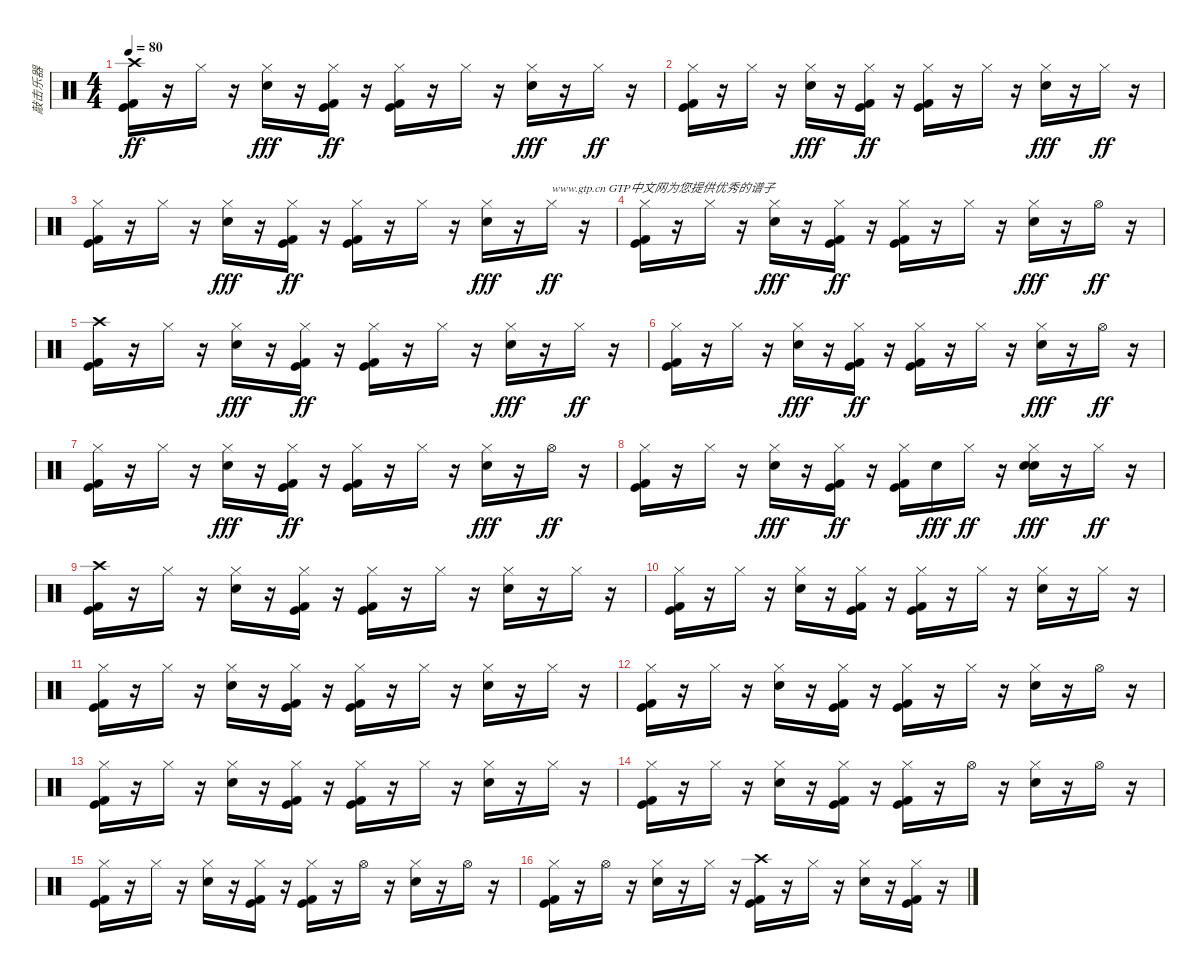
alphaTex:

\track ("敲击乐器" "敲击乐器") {instrument percussion}
\staff {score}
\articulation defaults
\ts (4 4)
\tempo 80
\clef neutral
\ks c
("Crash high (hit)" "Kick (hit)" "Kick (hit) 2").16{dy ff} r.16 "Hi-Hat (closed)".16 r.16 ("Hi-Hat (closed)" "Electric Snare (hit)").16{dy fff} r.16 ("Kick (hit)" "Kick (hit) 2" "Hi-Hat (closed)").16{dy ff} r.16 ("Kick (hit)" "Kick (hit) 2" "Hi-Hat (closed)").16 r.16 "Hi-Hat (closed)".16 r.16 ("Hi-Hat (closed)" "Electric Snare (hit)").16{dy fff} r.16 "Hi-Hat (closed)".16{dy ff} r.16 |
("Kick (hit)" "Kick (hit) 2" "Hi-Hat (closed)").16 r.16 "Hi-Hat (closed)".16 r.16 ("Hi-Hat (closed)" "Electric Snare (hit)").16{dy fff} r.16 ("Kick (hit)" "Kick (hit) 2" "Hi-Hat (closed)").16{dy ff} r.16 ("Kick (hit)" "Kick (hit) 2" "Hi-Hat (closed)").16 r.16 "Hi-Hat (closed)".16 r.16 ("Hi-Hat (closed)" "Electric Snare (hit)").16{dy fff} r.16 "Hi-Hat (closed)".16{dy ff} r.16 |
("Kick (hit)" "Kick (hit) 2" "Hi-Hat (closed)").16 r.16 "Hi-Hat (closed)".16 r.16 ("Hi-Hat (closed)" "Electric Snare (hit)").16{dy fff} r.16 ("Kick (hit)" "Kick (hit) 2" "Hi-Hat (closed)").16{dy ff} r.16 ("Kick (hit)" "Kick (hit) 2" "Hi-Hat (closed)").16 r.16 "Hi-Hat (closed)".16 r.16 ("Hi-Hat (closed)" "Electric Snare (hit)").16{dy fff} r.16 "Hi-Hat (closed)".16{txt "www.gtp.cn GTP中文网为您提供优秀的谱子" dy ff} r.16 |
("Kick (hit)" "Kick (hit) 2" "Hi-Hat (closed)").16 r.16 "Hi-Hat (closed)".16 r.16 ("Hi-Hat (closed)" "Electric Snare (hit)").16{dy fff} r.16 ("Kick (hit)" "Kick (hit) 2" "Hi-Hat (closed)").16{dy ff} r.16 ("Kick (hit)" "Kick (hit) 2" "Hi-Hat (closed)").16 r.16 "Hi-Hat (closed)".16 r.16 ("Hi-Hat (closed)" "Electric Snare (hit)").16{dy fff} r.16 "Hi-Hat (open)".16{dy ff} r.16 |
("Crash high (hit)" "Kick (hit)" "Kick (hit) 2").16 r.16 "Hi-Hat (closed)".16 r.16 ("Hi-Hat (closed)" "Electric Snare (hit)").16{dy fff} r.16 ("Kick (hit)" "Kick (hit) 2" "Hi-Hat (closed)").16{dy ff} r.16 ("Kick (hit)" "Kick (hit) 2" "Hi-Hat (closed)").16 r.16 "Hi-Hat (closed)".16 r.16 ("Hi-Hat (closed)" "Electric Snare (hit)").16{dy fff} r.16 "Hi-Hat (closed)".16{dy ff} r.16 |
("Kick (hit)" "Kick (hit) 2" "Hi-Hat (closed)").16 r.16 "Hi-Hat (closed)".16 r.16 ("Hi-Hat (closed)" "Electric Snare (hit)").16{dy fff} r.16 ("Kick (hit)" "Kick (hit) 2" "Hi-Hat (closed)").16{dy ff} r.16 ("Kick (hit)" "Kick (hit) 2" "Hi-Hat (closed)").16 r.16 "Hi-Hat (closed)".16 r.16 ("Hi-Hat (closed)" "Electric Snare (hit)").16{dy fff} r.16 "Hi-Hat (open)".16{dy ff} r.16 |
("Kick (hit)" "Kick (hit) 2" "Hi-Hat (closed)").16 r.16 "Hi-Hat (closed)".16 r.16 ("Hi-Hat (closed)" "Electric Snare (hit)").16{dy fff} r.16 ("Kick (hit)" "Kick (hit) 2" "Hi-Hat (closed)").16{dy ff} r.16 ("Kick (hit)" "Kick (hit) 2" "Hi-Hat (closed)").16 r.16 "Hi-Hat (closed)".16 r.16 ("Hi-Hat (closed)" "Electric Snare (hit)").16{dy fff} r.16 "Hi-Hat (open)".16{dy ff} r.16 |
("Kick (hit)" "Kick (hit) 2" "Hi-Hat (closed)").16 r.16 "Hi-Hat (closed)".16 r.16 ("Hi-Hat (closed)" "Electric Snare (hit)").16{dy fff} r.16 ("Kick (hit)" "Kick (hit) 2" "Hi-Hat (closed)").16{dy ff} r.16 ("Kick (hit)" "Kick (hit) 2" "Hi-Hat (closed)").16 "Electric Snare (hit)".16{dy fff} "Hi-Hat (closed)".16{dy ff} r.16 ("Electric Snare (hit)" "Hi-Hat (closed)" "Electric Snare (hit)").16{dy fff} r.16 "Hi-Hat (closed)".16{dy ff} r.16 |
("Crash high (hit)" "Kick (hit)" "Kick (hit) 2").16 r.16 "Hi-Hat (closed)".16 r.16 ("Electric Snare (hit)" "Hi-Hat (closed)").16 r.16 ("Kick (hit)" "Kick (hit) 2" "Hi-Hat (closed)").16 r.16 ("Kick (hit)" "Kick (hit) 2" "Hi-Hat (closed)").16 r.16 "Hi-Hat (closed)".16 r.16 ("Electric Snare (hit)" "Hi-Hat (closed)").16 r.16 "Hi-Hat (closed)".16 r.16 |
("Kick (hit) 2" "Kick (hit)" "Hi-Hat (closed)").16 r.16 "Hi-Hat (closed)".16 r.16 ("Electric Snare (hit)" "Hi-Hat (closed)").16 r.16 ("Kick (hit) 2" "Kick (hit)" "Hi-Hat (closed)").16 r.16 ("Kick (hit) 2" "Kick (hit)" "Hi-Hat (closed)").16 r.16 "Hi-Hat (closed)".16 r.16 ("Electric Snare (hit)" "Hi-Hat (closed)").16 r.16 "Hi-Hat (closed)".16 r.16 |
("Kick (hit)" "Kick (hit) 2" "Hi-Hat (closed)").16 r.16 "Hi-Hat (closed)".16 r.16 ("Electric Snare (hit)" "Hi-Hat (closed)").16 r.16 ("Kick (hit)" "Kick (hit) 2" "Hi-Hat (closed)").16 r.16 ("Kick (hit)" "Kick (hit) 2" "Hi-Hat (closed)").16 r.16 "Hi-Hat (closed)".16 r.16 ("Electric Snare (hit)" "Hi-Hat (closed)").16 r.16 "Hi-Hat (closed)".16 r.16 |
("Kick (hit) 2" "Kick (hit)" "Hi-Hat (closed)").16 r.16 "Hi-Hat (closed)".16 r.16 ("Electric Snare (hit)" "Hi-Hat (closed)").16 r.16 ("Kick (hit) 2" "Kick (hit)" "Hi-Hat (closed)").16 r.16 ("Kick (hit) 2" "Kick (hit)" "Hi-Hat (closed)").16 r.16 "Hi-Hat (closed)".16 r.16 ("Electric Snare (hit)" "Hi-Hat (closed)").16 r.16 "Hi-Hat (open)".16 r.16 |
("Kick (hit)" "Kick (hit) 2" "Hi-Hat (closed)").16 r.16 "Hi-Hat (closed)".16 r.16 ("Electric Snare (hit)" "Hi-Hat (closed)").16 r.16 ("Kick (hit)" "Kick (hit) 2" "Hi-Hat (closed)").16 r.16 ("Kick (hit)" "Kick (hit) 2" "Hi-Hat (closed)").16 r.16 "Hi-Hat (closed)".16 r.16 ("Electric Snare (hit)" "Hi-Hat (closed)").16 r.16 "Hi-Hat (closed)".16 r.16 |
("Kick (hit) 2" "Kick (hit)" "Hi-Hat (closed)").16 r.16 "Hi-Hat (closed)".16 r.16 ("Electric Snare (hit)" "Hi-Hat (closed)").16 r.16 ("Kick (hit) 2" "Kick (hit)" "Hi-Hat (closed)").16 r.16 ("Kick (hit) 2" "Kick (hit)" "Hi-Hat (closed)").16 r.16 "Hi-Hat (open)".16 r.16 ("Electric Snare (hit)" "Hi-Hat (closed)").16 r.16 "Hi-Hat (open)".16 r.16 |
("Kick (hit) 2" "Kick (hit)" "Hi-Hat (closed)").16 r.16 "Hi-Hat (closed)".16 r.16 ("Electric Snare (hit)" "Hi-Hat (closed)").16 r.16 ("Kick (hit) 2" "Kick (hit)" "Hi-Hat (closed)").16 r.16 ("Kick (hit) 2" "Kick (hit)" "Hi-Hat (closed)").16 r.16 "Hi-Hat (open)".16 r.16 ("Electric Snare (hit)" "Hi-Hat (closed)").16 r.16 "Hi-Hat (open)".16 r.16 |
("Kick (hit)" "Kick (hit) 2" "Hi-Hat (closed)").16 r.16 "Hi-Hat (open)".16 r.16 ("Electric Snare (hit)" "Hi-Hat (closed)").16 r.16 "Hi-Hat (closed)".16 r.16 ("Crash high (hit)" "Kick (hit)" "Kick (hit) 2").16 r.16 "Hi-Hat (closed)".16 r.16 ("Electric Snare (hit)" "Hi-Hat (closed)").16 r.16 ("Kick (hit)" "Kick (hit) 2" "Hi-Hat (closed)").16 r.16
